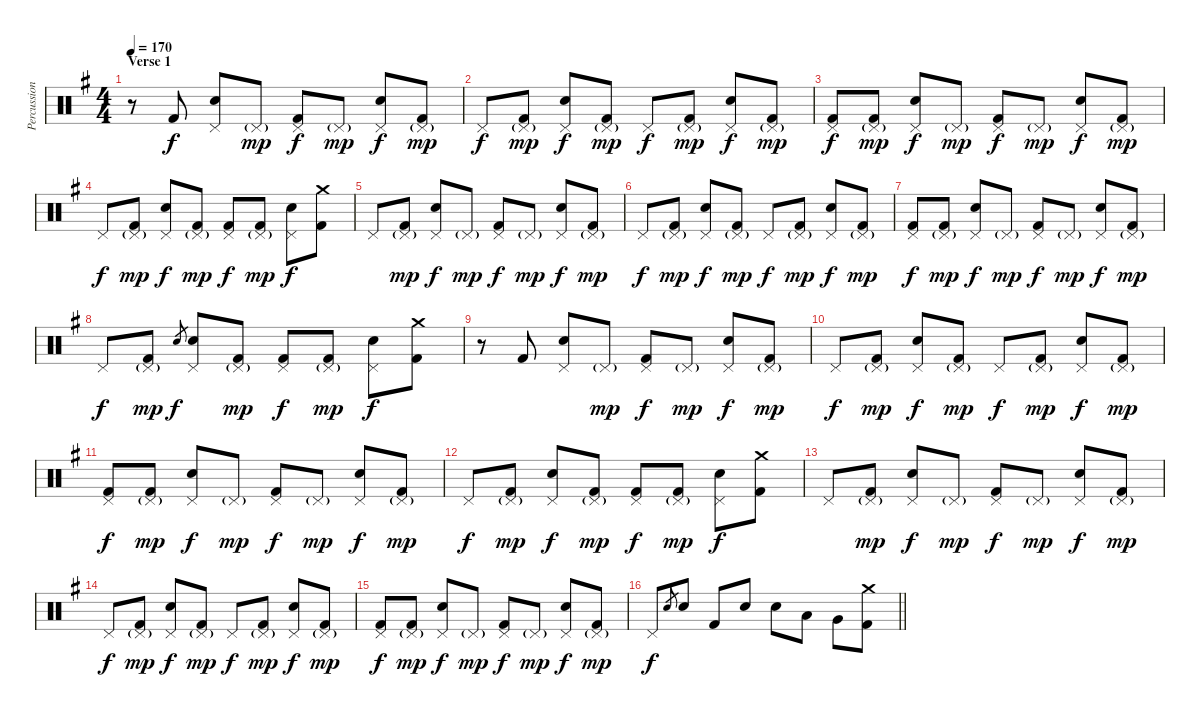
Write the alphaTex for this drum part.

\track ("Percussion" "Percussion") {instrument percussion}
\staff {score}
\articulation defaults
\ts (4 4)
\section ("" "Verse 1")
\tempo 170
\clef neutral
\ks g
r.8{dy f} "Kick (hit) 2".8 ("Pedal Hi-Hat (hit)" "Electric Snare (hit)").8 "Pedal Hi-Hat (hit)"{g}.8{dy mp} ("Pedal Hi-Hat (hit)" "Kick (hit) 2").8{dy f} "Pedal Hi-Hat (hit)"{g}.8{dy mp} ("Pedal Hi-Hat (hit)" "Electric Snare (hit)").8{dy f} ("Pedal Hi-Hat (hit)"{g} "Kick (hit) 2").8{dy mp} |
"Pedal Hi-Hat (hit)".8{dy f} ("Pedal Hi-Hat (hit)"{g} "Kick (hit) 2").8{dy mp} ("Pedal Hi-Hat (hit)" "Electric Snare (hit)").8{dy f} ("Pedal Hi-Hat (hit)"{g} "Kick (hit) 2").8{dy mp} "Pedal Hi-Hat (hit)".8{dy f} ("Pedal Hi-Hat (hit)"{g} "Kick (hit) 2").8{dy mp} ("Pedal Hi-Hat (hit)" "Electric Snare (hit)").8{dy f} ("Pedal Hi-Hat (hit)"{g} "Kick (hit) 2").8{dy mp} |
("Pedal Hi-Hat (hit)" "Kick (hit) 2").8{dy f} ("Pedal Hi-Hat (hit)"{g} "Kick (hit) 2").8{dy mp} ("Pedal Hi-Hat (hit)" "Electric Snare (hit)").8{dy f} "Pedal Hi-Hat (hit)"{g}.8{dy mp} ("Pedal Hi-Hat (hit)" "Kick (hit) 2").8{dy f} "Pedal Hi-Hat (hit)"{g}.8{dy mp} ("Pedal Hi-Hat (hit)" "Electric Snare (hit)").8{dy f} ("Pedal Hi-Hat (hit)"{g} "Kick (hit) 2").8{dy mp} |
"Pedal Hi-Hat (hit)".8{dy f} ("Pedal Hi-Hat (hit)"{g} "Kick (hit) 2").8{dy mp} ("Pedal Hi-Hat (hit)" "Electric Snare (hit)").8{dy f} ("Pedal Hi-Hat (hit)"{g} "Kick (hit) 2").8{dy mp} ("Pedal Hi-Hat (hit)" "Kick (hit) 2").8{dy f} ("Pedal Hi-Hat (hit)"{g} "Kick (hit) 2").8{dy mp} ("Pedal Hi-Hat (hit)" "Electric Snare (hit)").8{dy f} ("Crash medium (hit)" "Kick (hit) 2").8 |
"Pedal Hi-Hat (hit)".8 ("Pedal Hi-Hat (hit)"{g} "Kick (hit) 2").8{dy mp} ("Pedal Hi-Hat (hit)" "Electric Snare (hit)").8{dy f} "Pedal Hi-Hat (hit)"{g}.8{dy mp} ("Pedal Hi-Hat (hit)" "Kick (hit) 2").8{dy f} "Pedal Hi-Hat (hit)"{g}.8{dy mp} ("Pedal Hi-Hat (hit)" "Electric Snare (hit)").8{dy f} ("Pedal Hi-Hat (hit)"{g} "Kick (hit) 2").8{dy mp} |
"Pedal Hi-Hat (hit)".8{dy f} ("Pedal Hi-Hat (hit)"{g} "Kick (hit) 2").8{dy mp} ("Pedal Hi-Hat (hit)" "Electric Snare (hit)").8{dy f} ("Pedal Hi-Hat (hit)"{g} "Kick (hit) 2").8{dy mp} "Pedal Hi-Hat (hit)".8{dy f} ("Pedal Hi-Hat (hit)"{g} "Kick (hit) 2").8{dy mp} ("Pedal Hi-Hat (hit)" "Electric Snare (hit)").8{dy f} ("Pedal Hi-Hat (hit)"{g} "Kick (hit) 2").8{dy mp} |
("Pedal Hi-Hat (hit)" "Kick (hit) 2").8{dy f} ("Pedal Hi-Hat (hit)"{g} "Kick (hit) 2").8{dy mp} ("Pedal Hi-Hat (hit)" "Electric Snare (hit)").8{dy f} "Pedal Hi-Hat (hit)"{g}.8{dy mp} ("Pedal Hi-Hat (hit)" "Kick (hit) 2").8{dy f} "Pedal Hi-Hat (hit)"{g}.8{dy mp} ("Pedal Hi-Hat (hit)" "Electric Snare (hit)").8{dy f} ("Pedal Hi-Hat (hit)"{g} "Kick (hit) 2").8{dy mp} |
"Pedal Hi-Hat (hit)".8{dy f} ("Pedal Hi-Hat (hit)"{g} "Kick (hit) 2").8{dy mp} "Electric Snare (hit)".8{gr dy f} ("Pedal Hi-Hat (hit)" "Electric Snare (hit)").8 ("Pedal Hi-Hat (hit)"{g} "Kick (hit) 2").8{dy mp} ("Pedal Hi-Hat (hit)" "Kick (hit) 2").8{dy f} ("Pedal Hi-Hat (hit)"{g} "Kick (hit) 2").8{dy mp} ("Pedal Hi-Hat (hit)" "Electric Snare (hit)").8{dy f} ("Crash medium (hit)" "Kick (hit) 2").8 |
r.8 "Kick (hit) 2".8 ("Pedal Hi-Hat (hit)" "Electric Snare (hit)").8 "Pedal Hi-Hat (hit)"{g}.8{dy mp} ("Pedal Hi-Hat (hit)" "Kick (hit) 2").8{dy f} "Pedal Hi-Hat (hit)"{g}.8{dy mp} ("Pedal Hi-Hat (hit)" "Electric Snare (hit)").8{dy f} ("Pedal Hi-Hat (hit)"{g} "Kick (hit) 2").8{dy mp} |
"Pedal Hi-Hat (hit)".8{dy f} ("Pedal Hi-Hat (hit)"{g} "Kick (hit) 2").8{dy mp} ("Pedal Hi-Hat (hit)" "Electric Snare (hit)").8{dy f} ("Pedal Hi-Hat (hit)"{g} "Kick (hit) 2").8{dy mp} "Pedal Hi-Hat (hit)".8{dy f} ("Pedal Hi-Hat (hit)"{g} "Kick (hit) 2").8{dy mp} ("Pedal Hi-Hat (hit)" "Electric Snare (hit)").8{dy f} ("Pedal Hi-Hat (hit)"{g} "Kick (hit) 2").8{dy mp} |
("Pedal Hi-Hat (hit)" "Kick (hit) 2").8{dy f} ("Pedal Hi-Hat (hit)"{g} "Kick (hit) 2").8{dy mp} ("Pedal Hi-Hat (hit)" "Electric Snare (hit)").8{dy f} "Pedal Hi-Hat (hit)"{g}.8{dy mp} ("Pedal Hi-Hat (hit)" "Kick (hit) 2").8{dy f} "Pedal Hi-Hat (hit)"{g}.8{dy mp} ("Pedal Hi-Hat (hit)" "Electric Snare (hit)").8{dy f} ("Pedal Hi-Hat (hit)"{g} "Kick (hit) 2").8{dy mp} |
"Pedal Hi-Hat (hit)".8{dy f} ("Pedal Hi-Hat (hit)"{g} "Kick (hit) 2").8{dy mp} ("Pedal Hi-Hat (hit)" "Electric Snare (hit)").8{dy f} ("Pedal Hi-Hat (hit)"{g} "Kick (hit) 2").8{dy mp} ("Pedal Hi-Hat (hit)" "Kick (hit) 2").8{dy f} ("Pedal Hi-Hat (hit)"{g} "Kick (hit) 2").8{dy mp} ("Pedal Hi-Hat (hit)" "Electric Snare (hit)").8{dy f} ("Crash medium (hit)" "Kick (hit) 2").8 |
"Pedal Hi-Hat (hit)".8 ("Pedal Hi-Hat (hit)"{g} "Kick (hit) 2").8{dy mp} ("Pedal Hi-Hat (hit)" "Electric Snare (hit)").8{dy f} "Pedal Hi-Hat (hit)"{g}.8{dy mp} ("Pedal Hi-Hat (hit)" "Kick (hit) 2").8{dy f} "Pedal Hi-Hat (hit)"{g}.8{dy mp} ("Pedal Hi-Hat (hit)" "Electric Snare (hit)").8{dy f} ("Pedal Hi-Hat (hit)"{g} "Kick (hit) 2").8{dy mp} |
"Pedal Hi-Hat (hit)".8{dy f} ("Pedal Hi-Hat (hit)"{g} "Kick (hit) 2").8{dy mp} ("Pedal Hi-Hat (hit)" "Electric Snare (hit)").8{dy f} ("Pedal Hi-Hat (hit)"{g} "Kick (hit) 2").8{dy mp} "Pedal Hi-Hat (hit)".8{dy f} ("Pedal Hi-Hat (hit)"{g} "Kick (hit) 2").8{dy mp} ("Pedal Hi-Hat (hit)" "Electric Snare (hit)").8{dy f} ("Pedal Hi-Hat (hit)"{g} "Kick (hit) 2").8{dy mp} |
("Pedal Hi-Hat (hit)" "Kick (hit) 2").8{dy f} ("Pedal Hi-Hat (hit)"{g} "Kick (hit) 2").8{dy mp} ("Pedal Hi-Hat (hit)" "Electric Snare (hit)").8{dy f} "Pedal Hi-Hat (hit)"{g}.8{dy mp} ("Pedal Hi-Hat (hit)" "Kick (hit) 2").8{dy f} "Pedal Hi-Hat (hit)"{g}.8{dy mp} ("Pedal Hi-Hat (hit)" "Electric Snare (hit)").8{dy f} ("Pedal Hi-Hat (hit)"{g} "Kick (hit) 2").8{dy mp} |
\barLineRight lightlight "Pedal Hi-Hat (hit)".8{dy f} "Electric Snare (hit)".8{gr} "Electric Snare (hit)".8 "Kick (hit) 2".8 "Electric Snare (hit)".8 "Electric Snare (hit)".8 "Low Tom (hit)".8 "Very Low Tom (hit)".8
("Crash medium (hit)" "Kick (hit) 2").8
